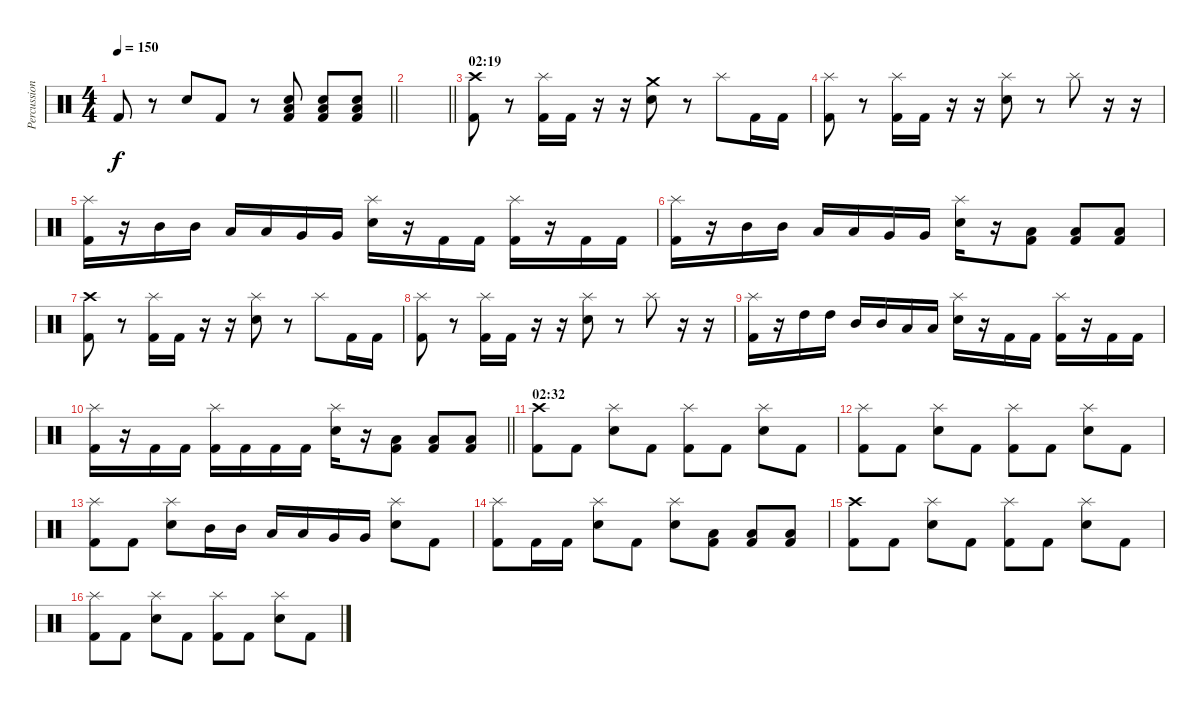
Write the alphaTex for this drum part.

\track ("Percussion" "Percussion") {instrument percussion}
\staff {score}
\articulation defaults
\ts (4 4)
\tempo 150
\clef neutral
\barLineRight lightlight
\ks c "Kick (hit) 2".8{dy f}
r.8 "Electric Snare (hit)".8 "Kick (hit) 2".8 r.8 ("Low Floor Tom (hit)" "Electric Snare (hit)" "Kick (hit) 2").8 ("Low Floor Tom (hit)" "Electric Snare (hit)" "Kick (hit) 2").8 ("Low Floor Tom (hit)" "Electric Snare (hit)" "Kick (hit) 2").8 |
\barLineRight lightlight
|
\section ("" "02:19")
("Crash high (hit)" "Kick (hit) 2").8 r.8 ("Splash (hit)" "Kick (hit) 2").16 "Kick (hit) 2".16 r.16 r.16 ("Crash medium (hit)" "Electric Snare (hit)").8 r.8 "Splash (hit)".8 "Kick (hit) 2".16 "Kick (hit) 2".16 |
("Splash (hit)" "Kick (hit) 2").8 r.8 ("Splash (hit)" "Kick (hit) 2").16 "Kick (hit) 2".16 r.16 r.16 ("Splash (hit)" "Electric Snare (hit)").8 r.8 "Splash (hit)".8 r.16 r.16 |
("Splash (hit)" "Kick (hit) 2").16 r.16 "Mid Tom (hit)".16 "Mid Tom (hit)".16 "Low Tom (hit)".16 "Low Tom (hit)".16 "Very Low Tom (hit)".16 "Very Low Tom (hit)".16 ("Splash (hit)" "Electric Snare (hit)").16 r.16 "Kick (hit) 2".16 "Kick (hit) 2".16 ("Splash (hit)" "Kick (hit) 2").16 r.16 "Kick (hit) 2".16 "Kick (hit) 2".16 |
("Splash (hit)" "Kick (hit) 2").16 r.16 "Mid Tom (hit)".16 "Mid Tom (hit)".16 "Low Tom (hit)".16 "Low Tom (hit)".16 "Very Low Tom (hit)".16 "Very Low Tom (hit)".16 ("Splash (hit)" "Electric Snare (hit)").16 r.16 ("Low Floor Tom (hit)" "Kick (hit) 2").8 ("Low Floor Tom (hit)" "Kick (hit) 2").8 ("Low Floor Tom (hit)" "Kick (hit) 2").8 |
("Crash high (hit)" "Kick (hit) 2").8 r.8 ("Splash (hit)" "Kick (hit) 2").16 "Kick (hit) 2".16 r.16 r.16 ("Splash (hit)" "Electric Snare (hit)").8 r.8 "Splash (hit)".8 "Kick (hit) 2".16 "Kick (hit) 2".16 |
("Splash (hit)" "Kick (hit) 2").8 r.8 ("Splash (hit)" "Kick (hit) 2").16 "Kick (hit) 2".16 r.16 r.16 ("Splash (hit)" "Electric Snare (hit)").8 r.8 "Splash (hit)".8 r.16 r.16 |
("Splash (hit)" "Kick (hit) 2").16 r.16 "High Tom (hit)".16 "High Tom (hit)".16 "Mid Tom (hit)".16 "Mid Tom (hit)".16 "Low Tom (hit)".16 "Low Tom (hit)".16 ("Splash (hit)" "Electric Snare (hit)").16 r.16 "Kick (hit) 2".16 "Kick (hit) 2".16 ("Splash (hit)" "Kick (hit) 2").16 r.16 "Kick (hit) 2".16 "Kick (hit) 2".16 |
\barLineRight lightlight
("Splash (hit)" "Kick (hit) 2").16 r.16 "Kick (hit) 2".16 "Kick (hit) 2".16 ("Splash (hit)" "Kick (hit) 2").16 "Kick (hit) 2".16 "Kick (hit) 2".16 "Kick (hit) 2".16 ("Splash (hit)" "Electric Snare (hit)").16 r.16 ("Low Floor Tom (hit)" "Kick (hit) 2").8 ("Low Floor Tom (hit)" "Kick (hit) 2").8 ("Low Floor Tom (hit)" "Kick (hit) 2").8 |
\section ("" "02:32")
("Crash high (hit)" "Kick (hit) 2").8 "Kick (hit) 2".8 ("Splash (hit)" "Electric Snare (hit)").8 "Kick (hit) 2".8 ("Splash (hit)" "Kick (hit) 2").8 "Kick (hit) 2".8 ("Splash (hit)" "Electric Snare (hit)").8 "Kick (hit) 2".8 |
("Splash (hit)" "Kick (hit) 2").8 "Kick (hit) 2".8 ("Splash (hit)" "Electric Snare (hit)").8 "Kick (hit) 2".8 ("Splash (hit)" "Kick (hit) 2").8 "Kick (hit) 2".8 ("Splash (hit)" "Electric Snare (hit)").8 "Kick (hit) 2".8 |
("Splash (hit)" "Kick (hit) 2").8 "Kick (hit) 2".8 ("Splash (hit)" "Electric Snare (hit)").8 "Mid Tom (hit)".16 "Mid Tom (hit)".16 "Low Tom (hit)".16 "Low Tom (hit)".16 "Very Low Tom (hit)".16 "Very Low Tom (hit)".16 ("Splash (hit)" "Electric Snare (hit)").8 "Kick (hit) 2".8 |
("Splash (hit)" "Kick (hit) 2").8 "Kick (hit) 2".16 "Kick (hit) 2".16 ("Splash (hit)" "Electric Snare (hit)").8 "Kick (hit) 2".8 ("Splash (hit)" "Electric Snare (hit)").8 ("Low Floor Tom (hit)" "Kick (hit) 2").8 ("Low Floor Tom (hit)" "Kick (hit) 2").8 ("Low Floor Tom (hit)" "Kick (hit) 2").8 |
("Crash high (hit)" "Kick (hit) 2").8 "Kick (hit) 2".8 ("Splash (hit)" "Electric Snare (hit)").8 "Kick (hit) 2".8 ("Splash (hit)" "Kick (hit) 2").8 "Kick (hit) 2".8 ("Splash (hit)" "Electric Snare (hit)").8 "Kick (hit) 2".8 |
("Splash (hit)" "Kick (hit) 2").8 "Kick (hit) 2".8 ("Splash (hit)" "Electric Snare (hit)").8 "Kick (hit) 2".8 ("Splash (hit)" "Kick (hit) 2").8 "Kick (hit) 2".8 ("Splash (hit)" "Electric Snare (hit)").8 "Kick (hit) 2".8
